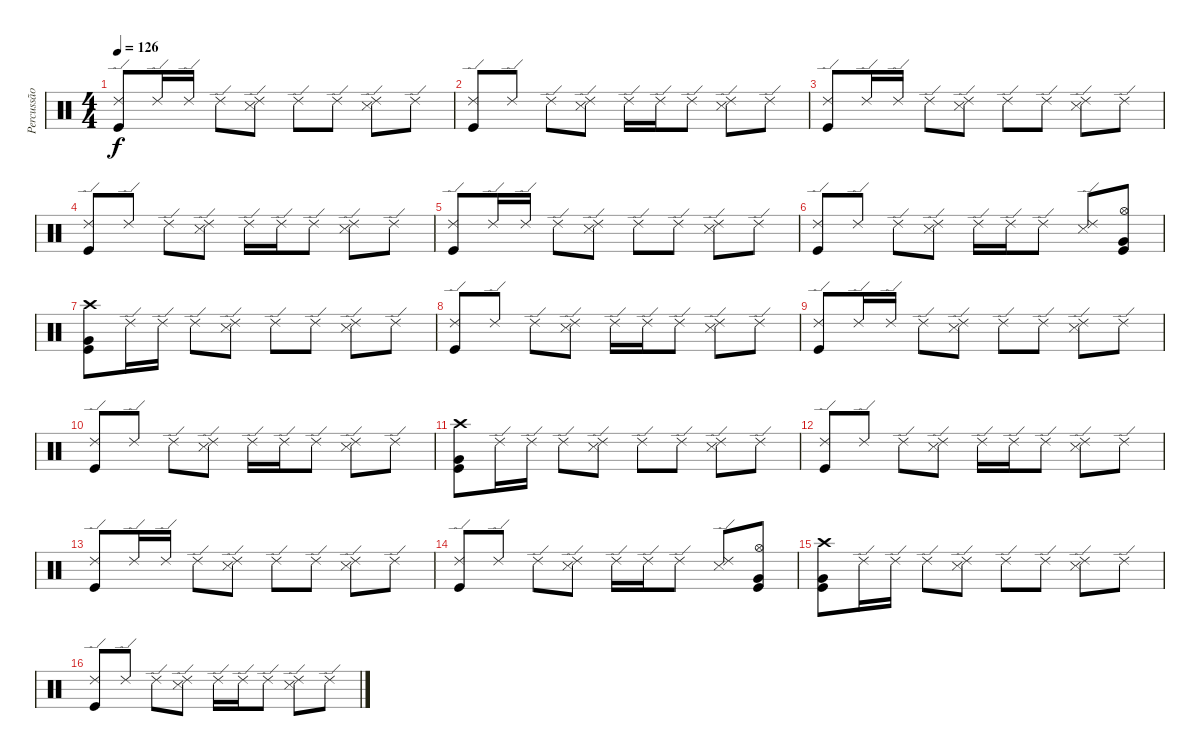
\track ("Percussão" "Percussão") {instrument percussion}
\staff {score}
\articulation defaults
\ts (4 4)
\tempo 126
\clef neutral
\ks c
("Ride (edge) 2" "Kick (hit)").8{dy f} "Ride (edge) 2".16 "Ride (edge) 2".16 "Ride (edge) 2".8 ("Ride (edge) 2" "Snare (side stick) 3").8 "Ride (edge) 2".8 "Ride (edge) 2".8 ("Ride (edge) 2" "Snare (side stick) 3").8 "Ride (edge) 2".8 |
("Ride (edge) 2" "Kick (hit)").8 "Ride (edge) 2".8 "Ride (edge) 2".8 ("Ride (edge) 2" "Snare (side stick) 3").8 "Ride (edge) 2".16 "Ride (edge) 2".16 "Ride (edge) 2".8 ("Ride (edge) 2" "Snare (side stick) 3").8 "Ride (edge) 2".8 |
("Ride (edge) 2" "Kick (hit)").8 "Ride (edge) 2".16 "Ride (edge) 2".16 "Ride (edge) 2".8 ("Ride (edge) 2" "Snare (side stick) 3").8 "Ride (edge) 2".8 "Ride (edge) 2".8 ("Ride (edge) 2" "Snare (side stick) 3").8 "Ride (edge) 2".8 |
("Ride (edge) 2" "Kick (hit)").8 "Ride (edge) 2".8 "Ride (edge) 2".8 ("Ride (edge) 2" "Snare (side stick) 3").8 "Ride (edge) 2".16 "Ride (edge) 2".16 "Ride (edge) 2".8 ("Ride (edge) 2" "Snare (side stick) 3").8 "Ride (edge) 2".8 |
("Ride (edge) 2" "Kick (hit)").8 "Ride (edge) 2".16 "Ride (edge) 2".16 "Ride (edge) 2".8 ("Ride (edge) 2" "Snare (side stick) 3").8 "Ride (edge) 2".8 "Ride (edge) 2".8 ("Ride (edge) 2" "Snare (side stick) 3").8 "Ride (edge) 2".8 |
("Ride (edge) 2" "Kick (hit)").8 "Ride (edge) 2".8 "Ride (edge) 2".8 ("Ride (edge) 2" "Snare (side stick) 3").8 "Ride (edge) 2".16 "Ride (edge) 2".16 "Ride (edge) 2".8 ("Ride (edge) 2" "Snare (side stick) 3").8 ("Hi-Hat (open)" "Very Low Tom (hit)" "Kick (hit)").8 |
("Crash high (hit)" "Very Low Tom (hit)" "Kick (hit)").8 "Ride (edge) 2".16 "Ride (edge) 2".16 "Ride (edge) 2".8 ("Ride (edge) 2" "Snare (side stick) 3").8 "Ride (edge) 2".8 "Ride (edge) 2".8 ("Ride (edge) 2" "Snare (side stick) 3").8 "Ride (edge) 2".8 |
("Ride (edge) 2" "Kick (hit)").8 "Ride (edge) 2".8 "Ride (edge) 2".8 ("Ride (edge) 2" "Snare (side stick) 3").8 "Ride (edge) 2".16 "Ride (edge) 2".16 "Ride (edge) 2".8 ("Ride (edge) 2" "Snare (side stick) 3").8 "Ride (edge) 2".8 |
("Ride (edge) 2" "Kick (hit)").8 "Ride (edge) 2".16 "Ride (edge) 2".16 "Ride (edge) 2".8 ("Ride (edge) 2" "Snare (side stick) 3").8 "Ride (edge) 2".8 "Ride (edge) 2".8 ("Ride (edge) 2" "Snare (side stick) 3").8 "Ride (edge) 2".8 |
("Ride (edge) 2" "Kick (hit)").8 "Ride (edge) 2".8 "Ride (edge) 2".8 ("Ride (edge) 2" "Snare (side stick) 3").8 "Ride (edge) 2".16 "Ride (edge) 2".16 "Ride (edge) 2".8 ("Ride (edge) 2" "Snare (side stick) 3").8 "Ride (edge) 2".8 |
("Crash high (hit)" "Very Low Tom (hit)" "Kick (hit)").8 "Ride (edge) 2".16 "Ride (edge) 2".16 "Ride (edge) 2".8 ("Ride (edge) 2" "Snare (side stick) 3").8 "Ride (edge) 2".8 "Ride (edge) 2".8 ("Ride (edge) 2" "Snare (side stick) 3").8 "Ride (edge) 2".8 |
("Ride (edge) 2" "Kick (hit)").8 "Ride (edge) 2".8 "Ride (edge) 2".8 ("Ride (edge) 2" "Snare (side stick) 3").8 "Ride (edge) 2".16 "Ride (edge) 2".16 "Ride (edge) 2".8 ("Ride (edge) 2" "Snare (side stick) 3").8 "Ride (edge) 2".8 |
("Ride (edge) 2" "Kick (hit)").8 "Ride (edge) 2".16 "Ride (edge) 2".16 "Ride (edge) 2".8 ("Ride (edge) 2" "Snare (side stick) 3").8 "Ride (edge) 2".8 "Ride (edge) 2".8 ("Ride (edge) 2" "Snare (side stick) 3").8 "Ride (edge) 2".8 |
("Ride (edge) 2" "Kick (hit)").8 "Ride (edge) 2".8 "Ride (edge) 2".8 ("Ride (edge) 2" "Snare (side stick) 3").8 "Ride (edge) 2".16 "Ride (edge) 2".16 "Ride (edge) 2".8 ("Ride (edge) 2" "Snare (side stick) 3").8 ("Hi-Hat (open)" "Very Low Tom (hit)" "Kick (hit)").8 |
("Crash high (hit)" "Very Low Tom (hit)" "Kick (hit)").8 "Ride (edge) 2".16 "Ride (edge) 2".16 "Ride (edge) 2".8 ("Ride (edge) 2" "Snare (side stick) 3").8 "Ride (edge) 2".8 "Ride (edge) 2".8 ("Ride (edge) 2" "Snare (side stick) 3").8 "Ride (edge) 2".8 |
("Ride (edge) 2" "Kick (hit)").8 "Ride (edge) 2".8 "Ride (edge) 2".8 ("Ride (edge) 2" "Snare (side stick) 3").8 "Ride (edge) 2".16 "Ride (edge) 2".16 "Ride (edge) 2".8 ("Ride (edge) 2" "Snare (side stick) 3").8 "Ride (edge) 2".8
